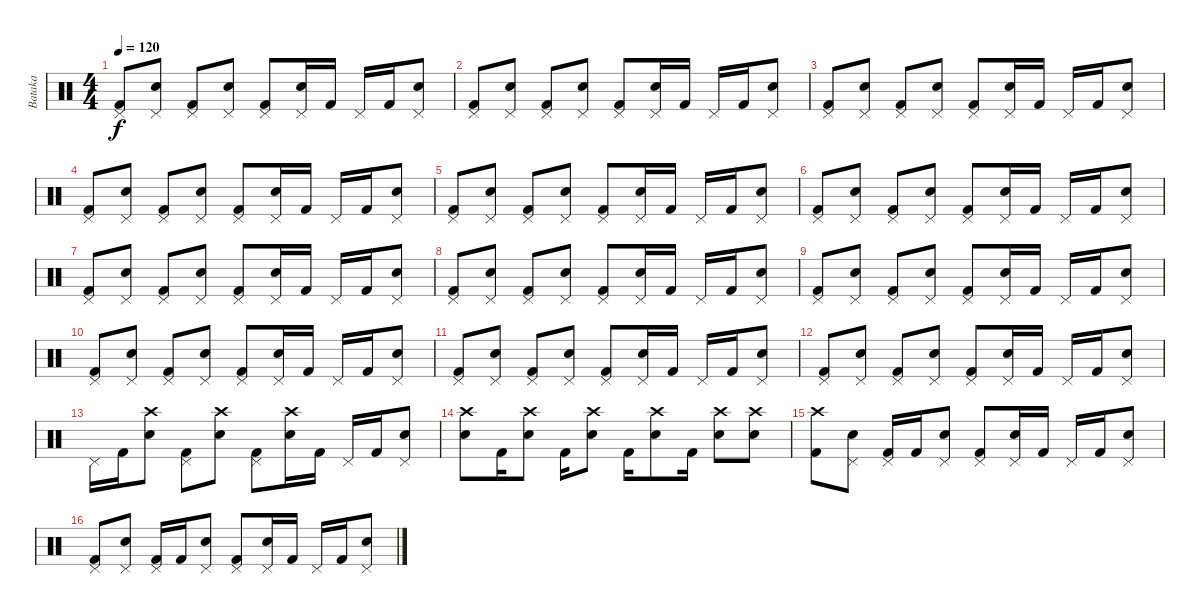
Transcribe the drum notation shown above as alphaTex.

\track ("Bataka" "Bataka") {instrument percussion}
\staff {score}
\articulation defaults
\ts (4 4)
\tempo 120
\clef neutral
\ks c
("Pedal Hi-Hat (hit)" "Kick (hit) 2").8{dy f} ("Pedal Hi-Hat (hit)" "Snare (hit) 2").8 ("Pedal Hi-Hat (hit)" "Kick (hit) 2").8 ("Pedal Hi-Hat (hit)" "Snare (hit) 2").8 ("Pedal Hi-Hat (hit)" "Kick (hit) 2").8 ("Pedal Hi-Hat (hit)" "Snare (hit) 2").16 "Kick (hit) 2".16 "Pedal Hi-Hat (hit)".16 "Kick (hit) 2".16 ("Pedal Hi-Hat (hit)" "Snare (hit) 2").8 |
("Pedal Hi-Hat (hit)" "Kick (hit) 2").8 ("Pedal Hi-Hat (hit)" "Snare (hit) 2").8 ("Pedal Hi-Hat (hit)" "Kick (hit) 2").8 ("Pedal Hi-Hat (hit)" "Snare (hit) 2").8 ("Pedal Hi-Hat (hit)" "Kick (hit) 2").8 ("Pedal Hi-Hat (hit)" "Snare (hit) 2").16 "Kick (hit) 2".16 "Pedal Hi-Hat (hit)".16 "Kick (hit) 2".16 ("Pedal Hi-Hat (hit)" "Snare (hit) 2").8 |
("Pedal Hi-Hat (hit)" "Kick (hit) 2").8 ("Pedal Hi-Hat (hit)" "Snare (hit) 2").8 ("Pedal Hi-Hat (hit)" "Kick (hit) 2").8 ("Pedal Hi-Hat (hit)" "Snare (hit) 2").8 ("Pedal Hi-Hat (hit)" "Kick (hit) 2").8 ("Pedal Hi-Hat (hit)" "Snare (hit) 2").16 "Kick (hit) 2".16 "Pedal Hi-Hat (hit)".16 "Kick (hit) 2".16 ("Pedal Hi-Hat (hit)" "Snare (hit) 2").8 |
("Pedal Hi-Hat (hit)" "Kick (hit) 2").8 ("Pedal Hi-Hat (hit)" "Snare (hit) 2").8 ("Pedal Hi-Hat (hit)" "Kick (hit) 2").8 ("Pedal Hi-Hat (hit)" "Snare (hit) 2").8 ("Pedal Hi-Hat (hit)" "Kick (hit) 2").8 ("Pedal Hi-Hat (hit)" "Snare (hit) 2").16 "Kick (hit) 2".16 "Pedal Hi-Hat (hit)".16 "Kick (hit) 2".16 ("Pedal Hi-Hat (hit)" "Snare (hit) 2").8 |
("Pedal Hi-Hat (hit)" "Kick (hit) 2").8 ("Pedal Hi-Hat (hit)" "Snare (hit) 2").8 ("Pedal Hi-Hat (hit)" "Kick (hit) 2").8 ("Pedal Hi-Hat (hit)" "Snare (hit) 2").8 ("Pedal Hi-Hat (hit)" "Kick (hit) 2").8 ("Pedal Hi-Hat (hit)" "Snare (hit) 2").16 "Kick (hit) 2".16 "Pedal Hi-Hat (hit)".16 "Kick (hit) 2".16 ("Pedal Hi-Hat (hit)" "Snare (hit) 2").8 |
("Pedal Hi-Hat (hit)" "Kick (hit) 2").8 ("Pedal Hi-Hat (hit)" "Snare (hit) 2").8 ("Pedal Hi-Hat (hit)" "Kick (hit) 2").8 ("Pedal Hi-Hat (hit)" "Snare (hit) 2").8 ("Pedal Hi-Hat (hit)" "Kick (hit) 2").8 ("Pedal Hi-Hat (hit)" "Snare (hit) 2").16 "Kick (hit) 2".16 "Pedal Hi-Hat (hit)".16 "Kick (hit) 2".16 ("Pedal Hi-Hat (hit)" "Snare (hit) 2").8 |
("Pedal Hi-Hat (hit)" "Kick (hit) 2").8 ("Pedal Hi-Hat (hit)" "Snare (hit) 2").8 ("Pedal Hi-Hat (hit)" "Kick (hit) 2").8 ("Pedal Hi-Hat (hit)" "Snare (hit) 2").8 ("Pedal Hi-Hat (hit)" "Kick (hit) 2").8 ("Pedal Hi-Hat (hit)" "Snare (hit) 2").16 "Kick (hit) 2".16 "Pedal Hi-Hat (hit)".16 "Kick (hit) 2".16 ("Pedal Hi-Hat (hit)" "Snare (hit) 2").8 |
("Pedal Hi-Hat (hit)" "Kick (hit) 2").8 ("Pedal Hi-Hat (hit)" "Snare (hit) 2").8 ("Pedal Hi-Hat (hit)" "Kick (hit) 2").8 ("Pedal Hi-Hat (hit)" "Snare (hit) 2").8 ("Pedal Hi-Hat (hit)" "Kick (hit) 2").8 ("Pedal Hi-Hat (hit)" "Snare (hit) 2").16 "Kick (hit) 2".16 "Pedal Hi-Hat (hit)".16 "Kick (hit) 2".16 ("Pedal Hi-Hat (hit)" "Snare (hit) 2").8 |
("Pedal Hi-Hat (hit)" "Kick (hit) 2").8 ("Pedal Hi-Hat (hit)" "Snare (hit) 2").8 ("Pedal Hi-Hat (hit)" "Kick (hit) 2").8 ("Pedal Hi-Hat (hit)" "Snare (hit) 2").8 ("Pedal Hi-Hat (hit)" "Kick (hit) 2").8 ("Pedal Hi-Hat (hit)" "Snare (hit) 2").16 "Kick (hit) 2".16 "Pedal Hi-Hat (hit)".16 "Kick (hit) 2".16 ("Pedal Hi-Hat (hit)" "Snare (hit) 2").8 |
("Pedal Hi-Hat (hit)" "Kick (hit) 2").8 ("Pedal Hi-Hat (hit)" "Snare (hit) 2").8 ("Pedal Hi-Hat (hit)" "Kick (hit) 2").8 ("Pedal Hi-Hat (hit)" "Snare (hit) 2").8 ("Pedal Hi-Hat (hit)" "Kick (hit) 2").8 ("Pedal Hi-Hat (hit)" "Snare (hit) 2").16 "Kick (hit) 2".16 "Pedal Hi-Hat (hit)".16 "Kick (hit) 2".16 ("Pedal Hi-Hat (hit)" "Snare (hit) 2").8 |
("Pedal Hi-Hat (hit)" "Kick (hit) 2").8 ("Pedal Hi-Hat (hit)" "Snare (hit) 2").8 ("Pedal Hi-Hat (hit)" "Kick (hit) 2").8 ("Pedal Hi-Hat (hit)" "Snare (hit) 2").8 ("Pedal Hi-Hat (hit)" "Kick (hit) 2").8 ("Pedal Hi-Hat (hit)" "Snare (hit) 2").16 "Kick (hit) 2".16 "Pedal Hi-Hat (hit)".16 "Kick (hit) 2".16 ("Pedal Hi-Hat (hit)" "Snare (hit) 2").8 |
("Pedal Hi-Hat (hit)" "Kick (hit) 2").8 ("Pedal Hi-Hat (hit)" "Snare (hit) 2").8 ("Pedal Hi-Hat (hit)" "Kick (hit) 2").8 ("Pedal Hi-Hat (hit)" "Snare (hit) 2").8 ("Pedal Hi-Hat (hit)" "Kick (hit) 2").8 ("Pedal Hi-Hat (hit)" "Snare (hit) 2").16 "Kick (hit) 2".16 "Pedal Hi-Hat (hit)".16 "Kick (hit) 2".16 ("Pedal Hi-Hat (hit)" "Snare (hit) 2").8 |
"Pedal Hi-Hat (hit)".16 "Kick (hit) 2".16 ("Crash high (hit)" "Snare (hit) 2").8 ("Pedal Hi-Hat (hit)" "Kick (hit) 2").8 ("Crash high (hit)" "Snare (hit) 2").8 ("Pedal Hi-Hat (hit)" "Kick (hit) 2").8 ("Crash high (hit)" "Snare (hit) 2").16 "Kick (hit) 2".16 "Pedal Hi-Hat (hit)".16 "Kick (hit) 2".16 ("Pedal Hi-Hat (hit)" "Snare (hit) 2").8 |
("Crash high (hit)" "Snare (hit) 2").8 "Kick (hit) 2".16 ("Crash high (hit)" "Snare (hit) 2").8 "Kick (hit) 2".16 ("Crash high (hit)" "Snare (hit) 2").8 "Kick (hit) 2".16 ("Crash high (hit)" "Snare (hit) 2").8 "Kick (hit) 2".16 ("Crash high (hit)" "Snare (hit) 2").8 ("Crash high (hit)" "Snare (hit) 2").8 |
("Crash high (hit)" "Kick (hit) 2").8 ("Pedal Hi-Hat (hit)" "Snare (hit) 2").8 ("Pedal Hi-Hat (hit)" "Kick (hit) 2").16 "Kick (hit) 2".16 ("Pedal Hi-Hat (hit)" "Snare (hit) 2").8 ("Pedal Hi-Hat (hit)" "Kick (hit) 2").8 ("Pedal Hi-Hat (hit)" "Snare (hit) 2").16 "Kick (hit) 2".16 "Pedal Hi-Hat (hit)".16 "Kick (hit) 2".16 ("Pedal Hi-Hat (hit)" "Snare (hit) 2").8 |
("Pedal Hi-Hat (hit)" "Kick (hit) 2").8 ("Pedal Hi-Hat (hit)" "Snare (hit) 2").8 ("Pedal Hi-Hat (hit)" "Kick (hit) 2").16 "Kick (hit) 2".16 ("Pedal Hi-Hat (hit)" "Snare (hit) 2").8 ("Pedal Hi-Hat (hit)" "Kick (hit) 2").8 ("Pedal Hi-Hat (hit)" "Snare (hit) 2").16 "Kick (hit) 2".16 "Pedal Hi-Hat (hit)".16 "Kick (hit) 2".16 ("Pedal Hi-Hat (hit)" "Snare (hit) 2").8
